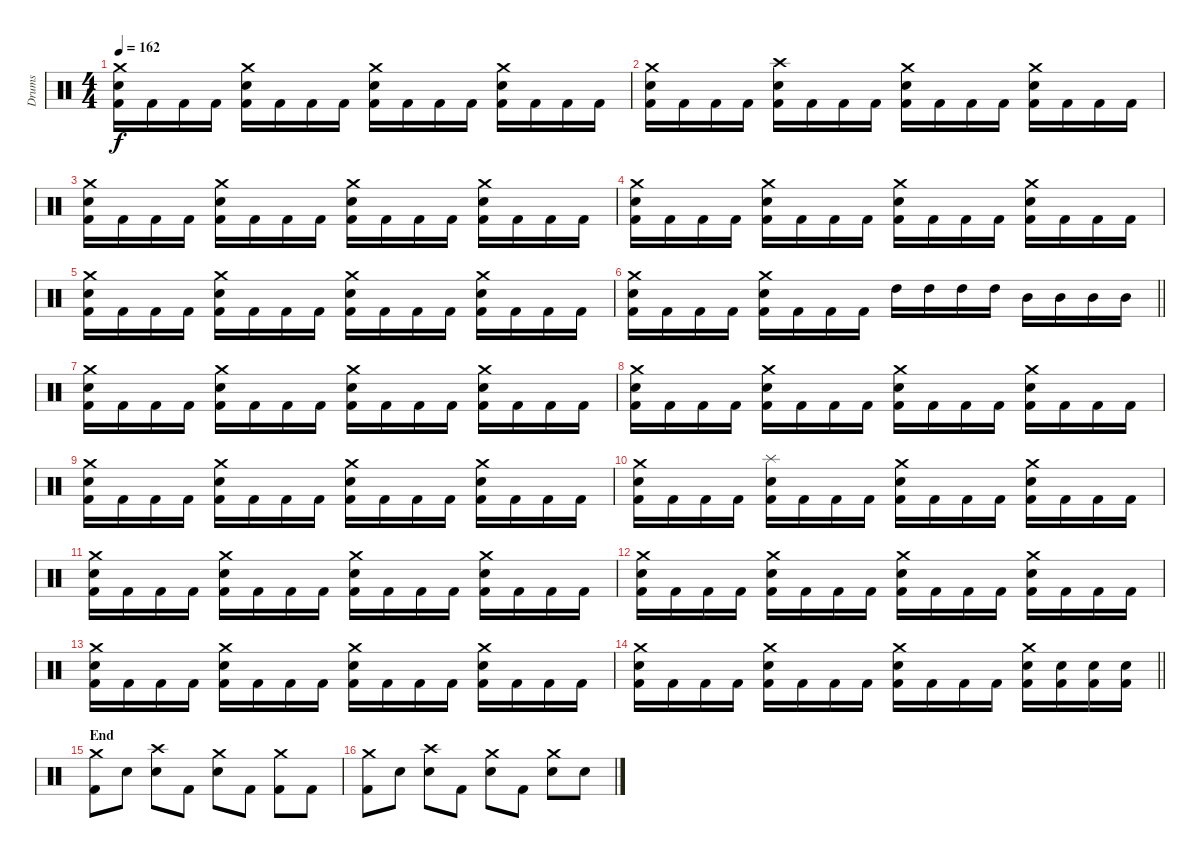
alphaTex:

\track ("Drums" "Drums") {instrument percussion}
\staff {score}
\articulation defaults
\ts (4 4)
\tempo 162
\clef neutral
\ks c
("Kick (hit) 2" "Snare (hit) 2" "Crash medium (hit)").16{dy f} "Kick (hit) 2".16 "Kick (hit) 2".16 "Kick (hit) 2".16 ("Kick (hit) 2" "Snare (hit) 2" "Crash medium (hit)").16 "Kick (hit) 2".16 "Kick (hit) 2".16 "Kick (hit) 2".16 ("Kick (hit) 2" "Snare (hit) 2" "Crash medium (hit)").16 "Kick (hit) 2".16 "Kick (hit) 2".16 "Kick (hit) 2".16 ("Kick (hit) 2" "Snare (hit) 2" "Crash medium (hit)").16 "Kick (hit) 2".16 "Kick (hit) 2".16 "Kick (hit) 2".16 |
("Kick (hit) 2" "Snare (hit) 2" "Crash medium (hit)").16 "Kick (hit) 2".16 "Kick (hit) 2".16 "Kick (hit) 2".16 ("Kick (hit) 2" "Snare (hit) 2" "Crash high (hit)").16 "Kick (hit) 2".16 "Kick (hit) 2".16 "Kick (hit) 2".16 ("Kick (hit) 2" "Snare (hit) 2" "Crash medium (hit)").16 "Kick (hit) 2".16 "Kick (hit) 2".16 "Kick (hit) 2".16 ("Kick (hit) 2" "Snare (hit) 2" "Crash medium (hit)").16 "Kick (hit) 2".16 "Kick (hit) 2".16 "Kick (hit) 2".16 |
("Kick (hit) 2" "Snare (hit) 2" "Crash medium (hit)").16 "Kick (hit) 2".16 "Kick (hit) 2".16 "Kick (hit) 2".16 ("Kick (hit) 2" "Snare (hit) 2" "Crash medium (hit)").16 "Kick (hit) 2".16 "Kick (hit) 2".16 "Kick (hit) 2".16 ("Kick (hit) 2" "Snare (hit) 2" "Crash medium (hit)").16 "Kick (hit) 2".16 "Kick (hit) 2".16 "Kick (hit) 2".16 ("Kick (hit) 2" "Snare (hit) 2" "Crash medium (hit)").16 "Kick (hit) 2".16 "Kick (hit) 2".16 "Kick (hit) 2".16 |
("Kick (hit) 2" "Snare (hit) 2" "Crash medium (hit)").16 "Kick (hit) 2".16 "Kick (hit) 2".16 "Kick (hit) 2".16 ("Kick (hit) 2" "Snare (hit) 2" "Crash medium (hit)").16 "Kick (hit) 2".16 "Kick (hit) 2".16 "Kick (hit) 2".16 ("Kick (hit) 2" "Snare (hit) 2" "Crash medium (hit)").16 "Kick (hit) 2".16 "Kick (hit) 2".16 "Kick (hit) 2".16 ("Kick (hit) 2" "Snare (hit) 2" "Crash medium (hit)").16 "Kick (hit) 2".16 "Kick (hit) 2".16 "Kick (hit) 2".16 |
("Kick (hit) 2" "Snare (hit) 2" "Crash medium (hit)").16 "Kick (hit) 2".16 "Kick (hit) 2".16 "Kick (hit) 2".16 ("Kick (hit) 2" "Snare (hit) 2" "Crash medium (hit)").16 "Kick (hit) 2".16 "Kick (hit) 2".16 "Kick (hit) 2".16 ("Kick (hit) 2" "Snare (hit) 2" "Crash medium (hit)").16 "Kick (hit) 2".16 "Kick (hit) 2".16 "Kick (hit) 2".16 ("Kick (hit) 2" "Snare (hit) 2" "Crash medium (hit)").16 "Kick (hit) 2".16 "Kick (hit) 2".16 "Kick (hit) 2".16 |
\barLineRight lightlight
("Kick (hit) 2" "Snare (hit) 2" "Crash medium (hit)").16 "Kick (hit) 2".16 "Kick (hit) 2".16 "Kick (hit) 2".16 ("Kick (hit) 2" "Snare (hit) 2" "Crash medium (hit)").16 "Kick (hit) 2".16 "Kick (hit) 2".16 "Kick (hit) 2".16 "High Tom (hit)".16 "High Tom (hit)".16 "High Tom (hit)".16 "High Tom (hit)".16 "Mid Tom (hit)".16 "Mid Tom (hit)".16 "Mid Tom (hit)".16 "Mid Tom (hit)".16 |
\section ("" "")
("Kick (hit) 2" "Snare (hit) 2" "Crash medium (hit)").16 "Kick (hit) 2".16 "Kick (hit) 2".16 "Kick (hit) 2".16 ("Kick (hit) 2" "Snare (hit) 2" "Crash medium (hit)").16 "Kick (hit) 2".16 "Kick (hit) 2".16 "Kick (hit) 2".16 ("Kick (hit) 2" "Snare (hit) 2" "Crash medium (hit)").16 "Kick (hit) 2".16 "Kick (hit) 2".16 "Kick (hit) 2".16 ("Kick (hit) 2" "Snare (hit) 2" "Crash medium (hit)").16 "Kick (hit) 2".16 "Kick (hit) 2".16 "Kick (hit) 2".16 |
("Kick (hit) 2" "Snare (hit) 2" "Crash medium (hit)").16 "Kick (hit) 2".16 "Kick (hit) 2".16 "Kick (hit) 2".16 ("Kick (hit) 2" "Snare (hit) 2" "Crash medium (hit)").16 "Kick (hit) 2".16 "Kick (hit) 2".16 "Kick (hit) 2".16 ("Kick (hit) 2" "Snare (hit) 2" "Crash medium (hit)").16 "Kick (hit) 2".16 "Kick (hit) 2".16 "Kick (hit) 2".16 ("Kick (hit) 2" "Snare (hit) 2" "Crash medium (hit)").16 "Kick (hit) 2".16 "Kick (hit) 2".16 "Kick (hit) 2".16 |
("Kick (hit) 2" "Snare (hit) 2" "Crash medium (hit)").16 "Kick (hit) 2".16 "Kick (hit) 2".16 "Kick (hit) 2".16 ("Kick (hit) 2" "Snare (hit) 2" "Crash medium (hit)").16 "Kick (hit) 2".16 "Kick (hit) 2".16 "Kick (hit) 2".16 ("Kick (hit) 2" "Snare (hit) 2" "Crash medium (hit)").16 "Kick (hit) 2".16 "Kick (hit) 2".16 "Kick (hit) 2".16 ("Kick (hit) 2" "Snare (hit) 2" "Crash medium (hit)").16 "Kick (hit) 2".16 "Kick (hit) 2".16 "Kick (hit) 2".16 |
("Kick (hit) 2" "Snare (hit) 2" "Crash medium (hit)").16 "Kick (hit) 2".16 "Kick (hit) 2".16 "Kick (hit) 2".16 ("Kick (hit) 2" "Snare (hit) 2" "Splash (hit)").16 "Kick (hit) 2".16 "Kick (hit) 2".16 "Kick (hit) 2".16 ("Kick (hit) 2" "Snare (hit) 2" "Crash medium (hit)").16 "Kick (hit) 2".16 "Kick (hit) 2".16 "Kick (hit) 2".16 ("Kick (hit) 2" "Snare (hit) 2" "Crash medium (hit)").16 "Kick (hit) 2".16 "Kick (hit) 2".16 "Kick (hit) 2".16 |
("Kick (hit) 2" "Snare (hit) 2" "Crash medium (hit)").16 "Kick (hit) 2".16 "Kick (hit) 2".16 "Kick (hit) 2".16 ("Kick (hit) 2" "Snare (hit) 2" "Crash medium (hit)").16 "Kick (hit) 2".16 "Kick (hit) 2".16 "Kick (hit) 2".16 ("Kick (hit) 2" "Snare (hit) 2" "Crash medium (hit)").16 "Kick (hit) 2".16 "Kick (hit) 2".16 "Kick (hit) 2".16 ("Kick (hit) 2" "Snare (hit) 2" "Crash medium (hit)").16 "Kick (hit) 2".16 "Kick (hit) 2".16 "Kick (hit) 2".16 |
("Kick (hit) 2" "Snare (hit) 2" "Crash medium (hit)").16 "Kick (hit) 2".16 "Kick (hit) 2".16 "Kick (hit) 2".16 ("Kick (hit) 2" "Snare (hit) 2" "Crash medium (hit)").16 "Kick (hit) 2".16 "Kick (hit) 2".16 "Kick (hit) 2".16 ("Kick (hit) 2" "Snare (hit) 2" "Crash medium (hit)").16 "Kick (hit) 2".16 "Kick (hit) 2".16 "Kick (hit) 2".16 ("Kick (hit) 2" "Snare (hit) 2" "Crash medium (hit)").16 "Kick (hit) 2".16 "Kick (hit) 2".16 "Kick (hit) 2".16 |
("Kick (hit) 2" "Snare (hit) 2" "Crash medium (hit)").16 "Kick (hit) 2".16 "Kick (hit) 2".16 "Kick (hit) 2".16 ("Kick (hit) 2" "Snare (hit) 2" "Crash medium (hit)").16 "Kick (hit) 2".16 "Kick (hit) 2".16 "Kick (hit) 2".16 ("Kick (hit) 2" "Snare (hit) 2" "Crash medium (hit)").16 "Kick (hit) 2".16 "Kick (hit) 2".16 "Kick (hit) 2".16 ("Kick (hit) 2" "Snare (hit) 2" "Crash medium (hit)").16 "Kick (hit) 2".16 "Kick (hit) 2".16 "Kick (hit) 2".16 |
\barLineRight lightlight
("Kick (hit) 2" "Snare (hit) 2" "Crash medium (hit)").16 "Kick (hit) 2".16 "Kick (hit) 2".16 "Kick (hit) 2".16 ("Kick (hit) 2" "Snare (hit) 2" "Crash medium (hit)").16 "Kick (hit) 2".16 "Kick (hit) 2".16 "Kick (hit) 2".16 ("Kick (hit) 2" "Snare (hit) 2" "Crash medium (hit)").16 "Kick (hit) 2".16 "Kick (hit) 2".16 "Kick (hit) 2".16 ("Kick (hit) 2" "Snare (hit) 2" "Crash medium (hit)").16 ("Kick (hit) 2" "Snare (hit) 2").16 ("Kick (hit) 2" "Snare (hit) 2").16 ("Kick (hit) 2" "Snare (hit) 2").16 |
\section ("" "End")
("Kick (hit) 2" "Crash medium (hit)").8 "Snare (hit) 2".8 ("Snare (hit) 2" "Crash high (hit)").8 "Kick (hit) 2".8 ("Snare (hit) 2" "Crash medium (hit)").8 "Kick (hit) 2".8 ("Kick (hit) 2" "Crash medium (hit)").8 "Kick (hit) 2".8 |
("Kick (hit) 2" "Crash medium (hit)").8 "Snare (hit) 2".8 ("Snare (hit) 2" "Crash high (hit)").8 "Kick (hit) 2".8 ("Snare (hit) 2" "Crash medium (hit)").8 "Kick (hit) 2".8 ("Snare (hit) 2" "Crash medium (hit)").8 "Snare (hit) 2".8
